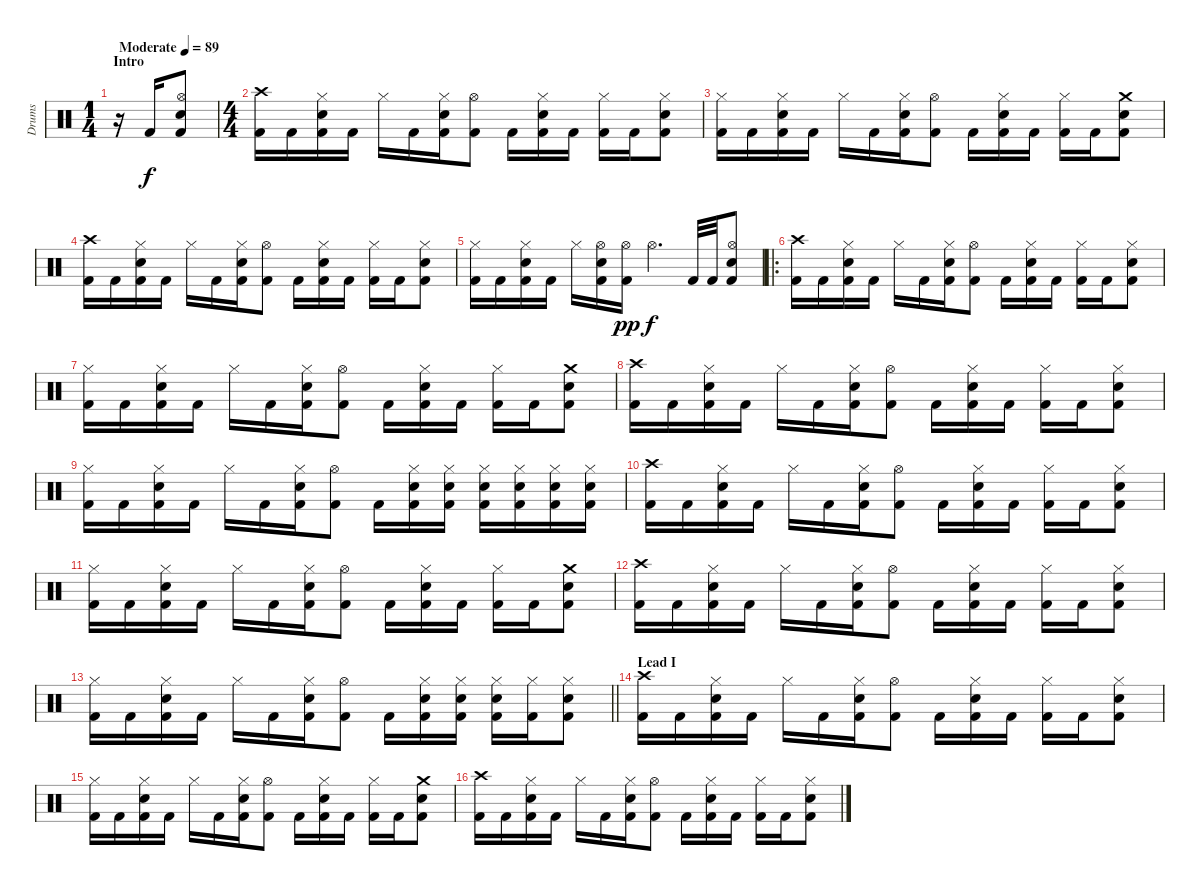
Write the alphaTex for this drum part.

\track ("Drums" "Drums") {instrument percussion}
\staff {score}
\articulation defaults
\ts (1 4)
\section ("" "Intro")
\tempo (89 "Moderate")
\clef neutral
\ks c
r.16{dy f} "Kick (hit) 2".16 ("Hi-Hat (open)" "Snare (hit) 2" "Kick (hit) 2").8 |
\ts (4 4)
("Crash high (hit)" "Kick (hit) 2").16 "Kick (hit) 2".16 ("Hi-Hat (closed)" "Snare (hit) 2" "Kick (hit) 2").16 "Kick (hit) 2".16 "Hi-Hat (closed)".16 "Kick (hit) 2".16 ("Hi-Hat (closed)" "Snare (hit) 2" "Kick (hit) 2").16 ("Hi-Hat (open)" "Kick (hit) 2").8 "Kick (hit) 2".16 ("Hi-Hat (closed)" "Snare (hit) 2" "Kick (hit) 2").16 "Kick (hit) 2".16 ("Hi-Hat (closed)" "Kick (hit) 2").16 "Kick (hit) 2".16 ("Hi-Hat (closed)" "Snare (hit) 2" "Kick (hit) 2").8 |
("Hi-Hat (closed)" "Kick (hit) 2").16 "Kick (hit) 2".16 ("Hi-Hat (closed)" "Snare (hit) 2" "Kick (hit) 2").16 "Kick (hit) 2".16 "Hi-Hat (closed)".16 "Kick (hit) 2".16 ("Hi-Hat (closed)" "Snare (hit) 2" "Kick (hit) 2").16 ("Hi-Hat (open)" "Kick (hit) 2").8 "Kick (hit) 2".16 ("Hi-Hat (closed)" "Snare (hit) 2" "Kick (hit) 2").16 "Kick (hit) 2".16 ("Hi-Hat (closed)" "Kick (hit) 2").16 "Kick (hit) 2".16 ("Crash medium (hit)" "Snare (hit) 2" "Kick (hit) 2").8 |
("Crash high (hit)" "Kick (hit) 2").16 "Kick (hit) 2".16 ("Hi-Hat (closed)" "Snare (hit) 2" "Kick (hit) 2").16 "Kick (hit) 2".16 "Hi-Hat (closed)".16 "Kick (hit) 2".16 ("Hi-Hat (closed)" "Snare (hit) 2" "Kick (hit) 2").16 ("Hi-Hat (open)" "Kick (hit) 2").8 "Kick (hit) 2".16 ("Hi-Hat (closed)" "Snare (hit) 2" "Kick (hit) 2").16 "Kick (hit) 2".16 ("Hi-Hat (closed)" "Kick (hit) 2").16 "Kick (hit) 2".16 ("Hi-Hat (closed)" "Snare (hit) 2" "Kick (hit) 2").8 |
("Hi-Hat (closed)" "Kick (hit) 2").16 "Kick (hit) 2".16 ("Hi-Hat (closed)" "Snare (hit) 2" "Kick (hit) 2").16 "Kick (hit) 2".16 "Hi-Hat (closed)".16 ("Hi-Hat (open)" "Snare (hit) 2" "Kick (hit) 2").16 ("Hi-Hat (open)" "Kick (hit) 2").16{dy pp} "Hi-Hat (open)".4{d dy f} "Kick (hit) 2".32 "Kick (hit) 2".32 ("Hi-Hat (open)" "Snare (hit) 2" "Kick (hit) 2").8 |
\ro
("Crash high (hit)" "Kick (hit) 2").16 "Kick (hit) 2".16 ("Hi-Hat (closed)" "Snare (hit) 2" "Kick (hit) 2").16 "Kick (hit) 2".16 "Hi-Hat (closed)".16 "Kick (hit) 2".16 ("Hi-Hat (closed)" "Snare (hit) 2" "Kick (hit) 2").16 ("Hi-Hat (open)" "Kick (hit) 2").8 "Kick (hit) 2".16 ("Hi-Hat (closed)" "Snare (hit) 2" "Kick (hit) 2").16 "Kick (hit) 2".16 ("Hi-Hat (closed)" "Kick (hit) 2").16 "Kick (hit) 2".16 ("Hi-Hat (closed)" "Snare (hit) 2" "Kick (hit) 2").8 |
("Hi-Hat (closed)" "Kick (hit) 2").16 "Kick (hit) 2".16 ("Hi-Hat (closed)" "Snare (hit) 2" "Kick (hit) 2").16 "Kick (hit) 2".16 "Hi-Hat (closed)".16 "Kick (hit) 2".16 ("Hi-Hat (closed)" "Snare (hit) 2" "Kick (hit) 2").16 ("Hi-Hat (open)" "Kick (hit) 2").8 "Kick (hit) 2".16 ("Hi-Hat (closed)" "Snare (hit) 2" "Kick (hit) 2").16 "Kick (hit) 2".16 ("Hi-Hat (closed)" "Kick (hit) 2").16 "Kick (hit) 2".16 ("Crash medium (hit)" "Snare (hit) 2" "Kick (hit) 2").8 |
("Crash high (hit)" "Kick (hit) 2").16 "Kick (hit) 2".16 ("Hi-Hat (closed)" "Snare (hit) 2" "Kick (hit) 2").16 "Kick (hit) 2".16 "Hi-Hat (closed)".16 "Kick (hit) 2".16 ("Hi-Hat (closed)" "Snare (hit) 2" "Kick (hit) 2").16 ("Hi-Hat (open)" "Kick (hit) 2").8 "Kick (hit) 2".16 ("Hi-Hat (closed)" "Snare (hit) 2" "Kick (hit) 2").16 "Kick (hit) 2".16 ("Hi-Hat (closed)" "Kick (hit) 2").16 "Kick (hit) 2".16 ("Hi-Hat (closed)" "Snare (hit) 2" "Kick (hit) 2").8 |
("Hi-Hat (closed)" "Kick (hit) 2").16 "Kick (hit) 2".16 ("Hi-Hat (closed)" "Snare (hit) 2" "Kick (hit) 2").16 "Kick (hit) 2".16 "Hi-Hat (closed)".16 "Kick (hit) 2".16 ("Hi-Hat (closed)" "Snare (hit) 2" "Kick (hit) 2").16 ("Hi-Hat (open)" "Kick (hit) 2").8 "Kick (hit) 2".16 ("Hi-Hat (closed)" "Snare (hit) 2" "Kick (hit) 2").16 ("Hi-Hat (closed)" "Snare (hit) 2" "Kick (hit) 2").16 ("Hi-Hat (closed)" "Snare (hit) 2" "Kick (hit) 2").16 ("Hi-Hat (closed)" "Snare (hit) 2" "Kick (hit) 2").16 ("Hi-Hat (closed)" "Snare (hit) 2" "Kick (hit) 2").16 ("Hi-Hat (closed)" "Snare (hit) 2" "Kick (hit) 2").16 |
("Crash high (hit)" "Kick (hit) 2").16 "Kick (hit) 2".16 ("Hi-Hat (closed)" "Snare (hit) 2" "Kick (hit) 2").16 "Kick (hit) 2".16 "Hi-Hat (closed)".16 "Kick (hit) 2".16 ("Hi-Hat (closed)" "Snare (hit) 2" "Kick (hit) 2").16 ("Hi-Hat (open)" "Kick (hit) 2").8 "Kick (hit) 2".16 ("Hi-Hat (closed)" "Snare (hit) 2" "Kick (hit) 2").16 "Kick (hit) 2".16 ("Hi-Hat (closed)" "Kick (hit) 2").16 "Kick (hit) 2".16 ("Hi-Hat (closed)" "Snare (hit) 2" "Kick (hit) 2").8 |
("Hi-Hat (closed)" "Kick (hit) 2").16 "Kick (hit) 2".16 ("Hi-Hat (closed)" "Snare (hit) 2" "Kick (hit) 2").16 "Kick (hit) 2".16 "Hi-Hat (closed)".16 "Kick (hit) 2".16 ("Hi-Hat (closed)" "Snare (hit) 2" "Kick (hit) 2").16 ("Hi-Hat (open)" "Kick (hit) 2").8 "Kick (hit) 2".16 ("Hi-Hat (closed)" "Snare (hit) 2" "Kick (hit) 2").16 "Kick (hit) 2".16 ("Hi-Hat (closed)" "Kick (hit) 2").16 "Kick (hit) 2".16 ("Crash medium (hit)" "Snare (hit) 2" "Kick (hit) 2").8 |
("Crash high (hit)" "Kick (hit) 2").16 "Kick (hit) 2".16 ("Hi-Hat (closed)" "Snare (hit) 2" "Kick (hit) 2").16 "Kick (hit) 2".16 "Hi-Hat (closed)".16 "Kick (hit) 2".16 ("Hi-Hat (closed)" "Snare (hit) 2" "Kick (hit) 2").16 ("Hi-Hat (open)" "Kick (hit) 2").8 "Kick (hit) 2".16 ("Hi-Hat (closed)" "Snare (hit) 2" "Kick (hit) 2").16 "Kick (hit) 2".16 ("Hi-Hat (closed)" "Kick (hit) 2").16 "Kick (hit) 2".16 ("Hi-Hat (closed)" "Snare (hit) 2" "Kick (hit) 2").8 |
\barLineRight lightlight
("Hi-Hat (closed)" "Kick (hit) 2").16 "Kick (hit) 2".16 ("Hi-Hat (closed)" "Snare (hit) 2" "Kick (hit) 2").16 "Kick (hit) 2".16 "Hi-Hat (closed)".16 "Kick (hit) 2".16 ("Hi-Hat (closed)" "Snare (hit) 2" "Kick (hit) 2").16 ("Hi-Hat (open)" "Kick (hit) 2").8 "Kick (hit) 2".16 ("Hi-Hat (closed)" "Snare (hit) 2" "Kick (hit) 2").16 ("Hi-Hat (closed)" "Snare (hit) 2" "Kick (hit) 2").16 ("Hi-Hat (closed)" "Snare (hit) 2" "Kick (hit) 2").16 ("Hi-Hat (closed)" "Kick (hit) 2").16 ("Hi-Hat (closed)" "Snare (hit) 2" "Kick (hit) 2").8 |
\section ("" "Lead I")
("Crash high (hit)" "Kick (hit) 2").16 "Kick (hit) 2".16 ("Hi-Hat (closed)" "Snare (hit) 2" "Kick (hit) 2").16 "Kick (hit) 2".16 "Hi-Hat (closed)".16 "Kick (hit) 2".16 ("Hi-Hat (closed)" "Snare (hit) 2" "Kick (hit) 2").16 ("Hi-Hat (open)" "Kick (hit) 2").8 "Kick (hit) 2".16 ("Hi-Hat (closed)" "Snare (hit) 2" "Kick (hit) 2").16 "Kick (hit) 2".16 ("Hi-Hat (closed)" "Kick (hit) 2").16 "Kick (hit) 2".16 ("Hi-Hat (closed)" "Snare (hit) 2" "Kick (hit) 2").8 |
("Hi-Hat (closed)" "Kick (hit) 2").16 "Kick (hit) 2".16 ("Hi-Hat (closed)" "Snare (hit) 2" "Kick (hit) 2").16 "Kick (hit) 2".16 "Hi-Hat (closed)".16 "Kick (hit) 2".16 ("Hi-Hat (closed)" "Snare (hit) 2" "Kick (hit) 2").16 ("Hi-Hat (open)" "Kick (hit) 2").8 "Kick (hit) 2".16 ("Hi-Hat (closed)" "Snare (hit) 2" "Kick (hit) 2").16 "Kick (hit) 2".16 ("Hi-Hat (closed)" "Kick (hit) 2").16 "Kick (hit) 2".16 ("Crash medium (hit)" "Snare (hit) 2" "Kick (hit) 2").8 |
("Crash high (hit)" "Kick (hit) 2").16 "Kick (hit) 2".16 ("Hi-Hat (closed)" "Snare (hit) 2" "Kick (hit) 2").16 "Kick (hit) 2".16 "Hi-Hat (closed)".16 "Kick (hit) 2".16 ("Hi-Hat (closed)" "Snare (hit) 2" "Kick (hit) 2").16 ("Hi-Hat (open)" "Kick (hit) 2").8 "Kick (hit) 2".16 ("Hi-Hat (closed)" "Snare (hit) 2" "Kick (hit) 2").16 "Kick (hit) 2".16 ("Hi-Hat (closed)" "Kick (hit) 2").16 "Kick (hit) 2".16 ("Hi-Hat (closed)" "Snare (hit) 2" "Kick (hit) 2").8
